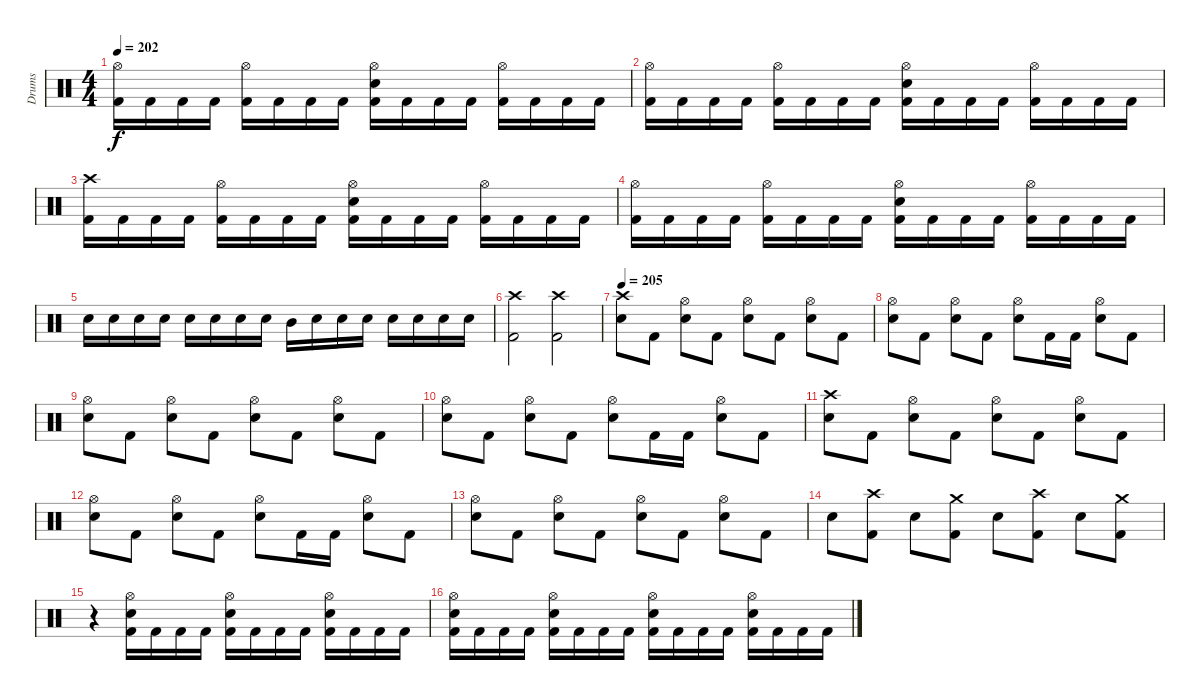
\track ("Drums" "Drums") {instrument percussion bank 169}
\staff {score}
\articulation defaults
\ts (4 4)
\tempo 202
\clef neutral
\ks c
("Hi-Hat (open)" "Kick (hit) 2").16{dy f} "Kick (hit) 2".16 "Kick (hit) 2".16 "Kick (hit) 2".16 ("Hi-Hat (open)" "Kick (hit) 2").16 "Kick (hit) 2".16 "Kick (hit) 2".16 "Kick (hit) 2".16 ("Hi-Hat (open)" "Snare (hit) 2" "Kick (hit) 2").16 "Kick (hit) 2".16 "Kick (hit) 2".16 "Kick (hit) 2".16 ("Hi-Hat (open)" "Kick (hit) 2").16 "Kick (hit) 2".16 "Kick (hit) 2".16 "Kick (hit) 2".16 |
("Hi-Hat (open)" "Kick (hit) 2").16 "Kick (hit) 2".16 "Kick (hit) 2".16 "Kick (hit) 2".16 ("Hi-Hat (open)" "Kick (hit) 2").16 "Kick (hit) 2".16 "Kick (hit) 2".16 "Kick (hit) 2".16 ("Hi-Hat (open)" "Snare (hit) 2" "Kick (hit) 2").16 "Kick (hit) 2".16 "Kick (hit) 2".16 "Kick (hit) 2".16 ("Hi-Hat (open)" "Kick (hit) 2").16 "Kick (hit) 2".16 "Kick (hit) 2".16 "Kick (hit) 2".16 |
("Crash high (hit)" "Kick (hit) 2").16 "Kick (hit) 2".16 "Kick (hit) 2".16 "Kick (hit) 2".16 ("Hi-Hat (open)" "Kick (hit) 2").16 "Kick (hit) 2".16 "Kick (hit) 2".16 "Kick (hit) 2".16 ("Hi-Hat (open)" "Snare (hit) 2" "Kick (hit) 2").16 "Kick (hit) 2".16 "Kick (hit) 2".16 "Kick (hit) 2".16 ("Hi-Hat (open)" "Kick (hit) 2").16 "Kick (hit) 2".16 "Kick (hit) 2".16 "Kick (hit) 2".16 |
("Hi-Hat (open)" "Kick (hit) 2").16 "Kick (hit) 2".16 "Kick (hit) 2".16 "Kick (hit) 2".16 ("Hi-Hat (open)" "Kick (hit) 2").16 "Kick (hit) 2".16 "Kick (hit) 2".16 "Kick (hit) 2".16 ("Hi-Hat (open)" "Snare (hit) 2" "Kick (hit) 2").16 "Kick (hit) 2".16 "Kick (hit) 2".16 "Kick (hit) 2".16 ("Hi-Hat (open)" "Kick (hit) 2").16 "Kick (hit) 2".16 "Kick (hit) 2".16 "Kick (hit) 2".16 |
"Snare (hit) 2".16 "Snare (hit) 2".16 "Snare (hit) 2".16 "Snare (hit) 2".16 "Snare (hit) 2".16 "Snare (hit) 2".16 "Snare (hit) 2".16 "Snare (hit) 2".16 "Mid Tom (hit)".16 "Snare (hit) 2".16 "Snare (hit) 2".16 "Snare (hit) 2".16 "Snare (hit) 2".16 "Snare (hit) 2".16 "Snare (hit) 2".16 "Snare (hit) 2".16 |
("Crash high (hit)"{x} "Kick (hit) 2").2 ("Crash high (hit)"{x} "Kick (hit) 2").2 |
\tempo 205
("Crash high (hit)" "Snare (hit) 2").8 "Kick (hit) 2".8 ("Hi-Hat (open)" "Snare (hit) 2").8 "Kick (hit) 2".8 ("Hi-Hat (open)" "Snare (hit) 2").8 "Kick (hit) 2".8 ("Hi-Hat (open)" "Snare (hit) 2").8 "Kick (hit) 2".8 |
("Hi-Hat (open)" "Snare (hit) 2").8 "Kick (hit) 2".8 ("Hi-Hat (open)" "Snare (hit) 2").8 "Kick (hit) 2".8 ("Hi-Hat (open)" "Snare (hit) 2").8 "Kick (hit) 2".16 "Kick (hit) 2".16 ("Hi-Hat (open)" "Snare (hit) 2").8 "Kick (hit) 2".8 |
("Hi-Hat (open)" "Snare (hit) 2").8 "Kick (hit) 2".8 ("Hi-Hat (open)" "Snare (hit) 2").8 "Kick (hit) 2".8 ("Hi-Hat (open)" "Snare (hit) 2").8 "Kick (hit) 2".8 ("Hi-Hat (open)" "Snare (hit) 2").8 "Kick (hit) 2".8 |
("Hi-Hat (open)" "Snare (hit) 2").8 "Kick (hit) 2".8 ("Hi-Hat (open)" "Snare (hit) 2").8 "Kick (hit) 2".8 ("Hi-Hat (open)" "Snare (hit) 2").8 "Kick (hit) 2".16 "Kick (hit) 2".16 ("Hi-Hat (open)" "Snare (hit) 2").8 "Kick (hit) 2".8 |
("Crash high (hit)" "Snare (hit) 2").8 "Kick (hit) 2".8 ("Hi-Hat (open)" "Snare (hit) 2").8 "Kick (hit) 2".8 ("Hi-Hat (open)" "Snare (hit) 2").8 "Kick (hit) 2".8 ("Hi-Hat (open)" "Snare (hit) 2").8 "Kick (hit) 2".8 |
("Hi-Hat (open)" "Snare (hit) 2").8 "Kick (hit) 2".8 ("Hi-Hat (open)" "Snare (hit) 2").8 "Kick (hit) 2".8 ("Hi-Hat (open)" "Snare (hit) 2").8 "Kick (hit) 2".16 "Kick (hit) 2".16 ("Hi-Hat (open)" "Snare (hit) 2").8 "Kick (hit) 2".8 |
("Hi-Hat (open)" "Snare (hit) 2").8 "Kick (hit) 2".8 ("Hi-Hat (open)" "Snare (hit) 2").8 "Kick (hit) 2".8 ("Hi-Hat (open)" "Snare (hit) 2").8 "Kick (hit) 2".8 ("Hi-Hat (open)" "Snare (hit) 2").8 "Kick (hit) 2".8 |
"Snare (hit) 2".8 ("Crash high (hit)" "Kick (hit) 2").8 "Snare (hit) 2".8 ("Crash medium (hit)" "Kick (hit) 2").8 "Snare (hit) 2".8 ("Crash high (hit)" "Kick (hit) 2").8 "Snare (hit) 2".8 ("Crash medium (hit)" "Kick (hit) 2").8 |
r.4 ("Hi-Hat (open)" "Snare (hit) 2" "Kick (hit) 2").16 "Kick (hit) 2".16 "Kick (hit) 2".16 "Kick (hit) 2".16 ("Hi-Hat (open)" "Snare (hit) 2" "Kick (hit) 2").16 "Kick (hit) 2".16 "Kick (hit) 2".16 "Kick (hit) 2".16 ("Hi-Hat (open)" "Snare (hit) 2" "Kick (hit) 2").16 "Kick (hit) 2".16 "Kick (hit) 2".16 "Kick (hit) 2".16 |
("Hi-Hat (open)" "Snare (hit) 2" "Kick (hit) 2").16 "Kick (hit) 2".16 "Kick (hit) 2".16 "Kick (hit) 2".16 ("Hi-Hat (open)" "Snare (hit) 2" "Kick (hit) 2").16 "Kick (hit) 2".16 "Kick (hit) 2".16 "Kick (hit) 2".16 ("Hi-Hat (open)" "Snare (hit) 2" "Kick (hit) 2").16 "Kick (hit) 2".16 "Kick (hit) 2".16 "Kick (hit) 2".16 ("Hi-Hat (open)" "Snare (hit) 2" "Kick (hit) 2").16 "Kick (hit) 2".16 "Kick (hit) 2".16 "Kick (hit) 2".16
